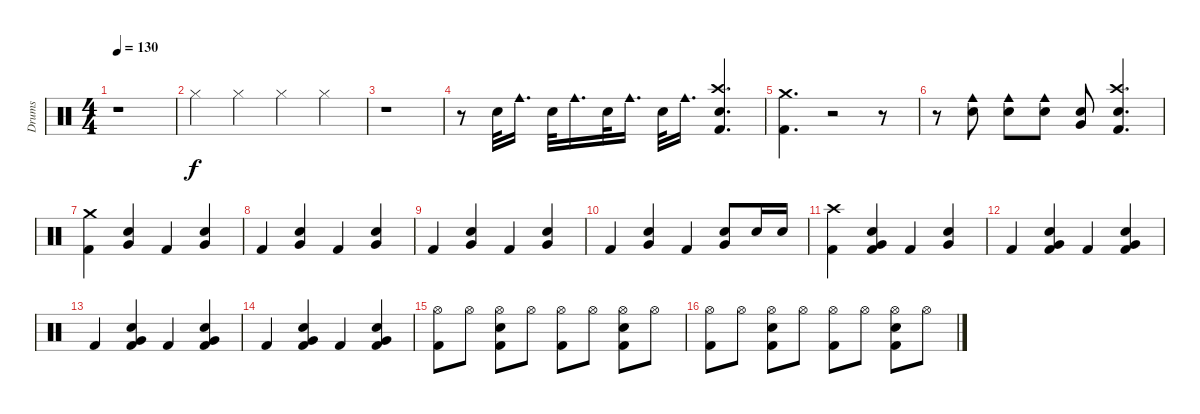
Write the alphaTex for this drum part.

\track ("Drums" "Drums") {instrument percussion}
\staff {score}
\articulation defaults
\ts (4 4)
\tempo 130
\clef neutral
\ks c
r.1{dy f} |
"Hi-Hat (closed)".4 "Hi-Hat (closed)".4 "Hi-Hat (closed)".4 "Hi-Hat (closed)".4 |
r.1 |
r.8 "Electric Snare (hit)".32 "Cowbell medium (hit)".16{d} "Electric Snare (hit)".32 "Cowbell medium (hit)".16{d} "Electric Snare (hit)".32 "Cowbell medium (hit)".16{d} "Electric Snare (hit)".32 "Cowbell medium (hit)".16{d} ("Crash high (hit)" "Kick (hit) 2" "Electric Snare (hit)").4{d} |
("Crash medium (hit)" "Kick (hit) 2").4{d} r.2 r.8 |
r.8 ("Electric Snare (hit)" "Cowbell medium (hit)").8 ("Electric Snare (hit)" "Cowbell medium (hit)").8 ("Electric Snare (hit)" "Cowbell medium (hit)").8 ("Very Low Tom (hit)" "Electric Snare (hit)").8 ("Crash high (hit)" "Electric Snare (hit)" "Kick (hit) 2").4{d} |
("Crash medium (hit)" "Kick (hit) 2").4 ("Very Low Tom (hit)" "Electric Snare (hit)").4 "Kick (hit) 2".4 ("Very Low Tom (hit)" "Electric Snare (hit)").4 |
"Kick (hit) 2".4 ("Very Low Tom (hit)" "Electric Snare (hit)").4 "Kick (hit) 2".4 ("Very Low Tom (hit)" "Electric Snare (hit)").4 |
"Kick (hit) 2".4 ("Very Low Tom (hit)" "Electric Snare (hit)").4 "Kick (hit) 2".4 ("Very Low Tom (hit)" "Electric Snare (hit)").4 |
"Kick (hit) 2".4 ("Very Low Tom (hit)" "Electric Snare (hit)").4 "Kick (hit) 2".4 ("Very Low Tom (hit)" "Electric Snare (hit)").8 "Electric Snare (hit)".16 "Electric Snare (hit)".16 |
("Crash high (hit)" "Kick (hit) 2").4 ("Kick (hit) 2" "Very Low Tom (hit)" "Electric Snare (hit)").4 "Kick (hit) 2".4 ("Very Low Tom (hit)" "Electric Snare (hit)").4 |
"Kick (hit) 2".4 ("Kick (hit) 2" "Very Low Tom (hit)" "Electric Snare (hit)").4 "Kick (hit) 2".4 ("Kick (hit) 2" "Very Low Tom (hit)" "Electric Snare (hit)").4 |
"Kick (hit) 2".4 ("Kick (hit) 2" "Very Low Tom (hit)" "Electric Snare (hit)").4 "Kick (hit) 2".4 ("Kick (hit) 2" "Very Low Tom (hit)" "Electric Snare (hit)").4 |
"Kick (hit) 2".4 ("Kick (hit) 2" "Very Low Tom (hit)" "Electric Snare (hit)").4 "Kick (hit) 2".4 ("Kick (hit) 2" "Very Low Tom (hit)" "Electric Snare (hit)").4 |
("Kick (hit) 2" "Hi-Hat (open)").8 "Hi-Hat (open)".8 ("Electric Snare (hit)" "Kick (hit) 2" "Hi-Hat (open)").8 "Hi-Hat (open)".8 ("Kick (hit) 2" "Hi-Hat (open)").8 "Hi-Hat (open)".8 ("Electric Snare (hit)" "Kick (hit) 2" "Hi-Hat (open)").8 "Hi-Hat (open)".8 |
("Kick (hit) 2" "Hi-Hat (open)").8 "Hi-Hat (open)".8 ("Electric Snare (hit)" "Kick (hit) 2" "Hi-Hat (open)").8 "Hi-Hat (open)".8 ("Kick (hit) 2" "Hi-Hat (open)").8 "Hi-Hat (open)".8 ("Electric Snare (hit)" "Kick (hit) 2" "Hi-Hat (open)").8 "Hi-Hat (open)".8
